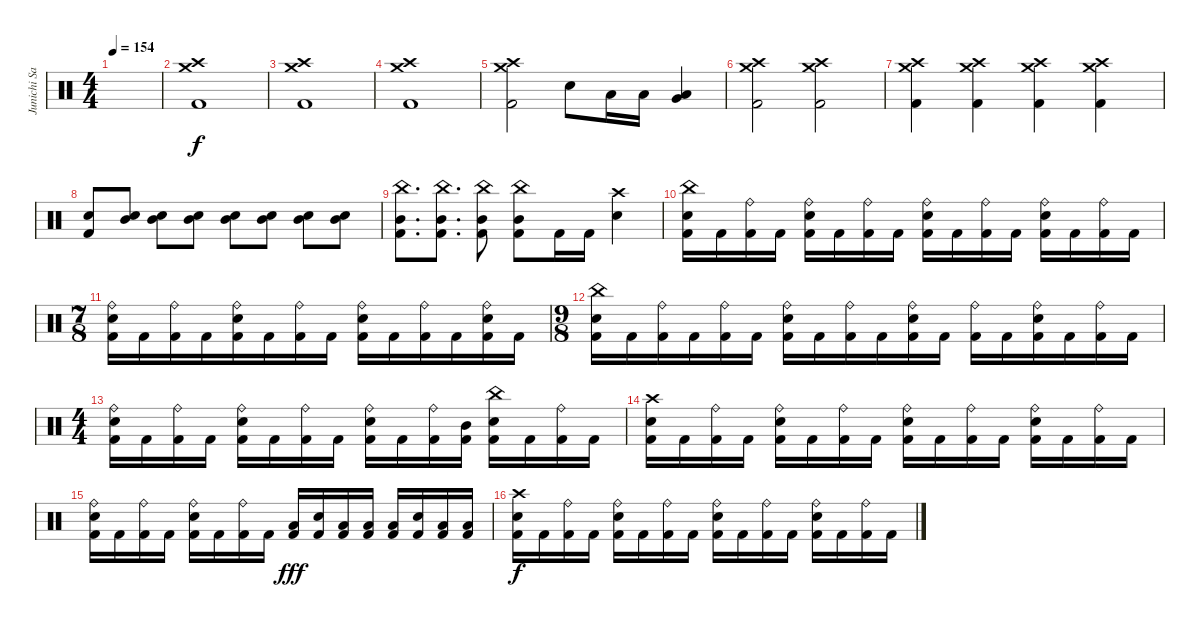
\track ("Junichi Sato" "Junichi Sa") {instrument percussion}
\staff {score}
\articulation defaults
\ts (4 4)
\tempo 154
\clef neutral
\ks c
|
("Kick (hit) 2" "Crash high (hit)" "Crash medium (hit)").1 |
("Kick (hit) 2" "Crash high (hit)" "Crash medium (hit)").1 |
("Kick (hit) 2" "Crash high (hit)" "Crash medium (hit)").1 |
("Kick (hit) 2" "Crash high (hit)" "Crash medium (hit)").2 "Electric Snare (hit)".8 "Low Tom (hit)".16 "Low Tom (hit)".16 ("Very Low Tom (hit)" "Low Floor Tom (hit)").4 |
("Kick (hit) 2" "Crash high (hit)" "Crash medium (hit)").2 ("Kick (hit) 2" "Crash high (hit)" "Crash medium (hit)").2 |
("Kick (hit) 2" "Crash high (hit)" "Crash medium (hit)").4 ("Kick (hit) 2" "Crash high (hit)" "Crash medium (hit)").4 ("Kick (hit) 2" "Crash high (hit)" "Crash medium (hit)").4 ("Kick (hit) 2" "Crash high (hit)" "Crash medium (hit)").4 |
("Electric Snare (hit)" "Kick (hit) 2").8 ("Electric Snare (hit)" "Mid Tom (hit)").8 ("Electric Snare (hit)" "Mid Tom (hit)").8 ("Electric Snare (hit)" "Mid Tom (hit)").8 ("Electric Snare (hit)" "Mid Tom (hit)").8 ("Electric Snare (hit)" "Mid Tom (hit)").8 ("Electric Snare (hit)" "Mid Tom (hit)").8 ("Electric Snare (hit)" "Mid Tom (hit)").8 |
("China (hit)" "Mid Tom (hit)" "Kick (hit) 2").8{d} ("China (hit)" "Mid Tom (hit)" "Kick (hit) 2").8{d} ("China (hit)" "Mid Tom (hit)" "Kick (hit) 2").8 ("China (hit)" "Mid Tom (hit)" "Kick (hit) 2").8 "Kick (hit) 2".16 "Kick (hit) 2".16 ("Electric Snare (hit)" "Crash high (hit)").4 |
("Kick (hit) 2" "Electric Snare (hit)" "China (hit)").16 "Kick (hit) 2".16 ("Kick (hit) 2" "Ride (bell)").16 "Kick (hit) 2".16 ("Kick (hit) 2" "Electric Snare (hit)" "Ride (bell)").16 "Kick (hit) 2".16 ("Kick (hit) 2" "Ride (bell)").16 "Kick (hit) 2".16 ("Kick (hit) 2" "Electric Snare (hit)" "Ride (bell)").16 "Kick (hit) 2".16 ("Kick (hit) 2" "Ride (bell)").16 "Kick (hit) 2".16 ("Kick (hit) 2" "Electric Snare (hit)" "Ride (bell)").16 "Kick (hit) 2".16 ("Kick (hit) 2" "Ride (bell)").16 "Kick (hit) 2".16 |
\ts (7 8)
("Kick (hit) 2" "Ride (bell)" "Electric Snare (hit)").16 "Kick (hit) 2".16 ("Kick (hit) 2" "Ride (bell)").16 "Kick (hit) 2".16 ("Kick (hit) 2" "Ride (bell)" "Electric Snare (hit)").16 "Kick (hit) 2".16 ("Kick (hit) 2" "Ride (bell)").16 "Kick (hit) 2".16 ("Kick (hit) 2" "Ride (bell)" "Electric Snare (hit)").16 "Kick (hit) 2".16 ("Kick (hit) 2" "Ride (bell)").16 "Kick (hit) 2".16 ("Kick (hit) 2" "Ride (bell)" "Electric Snare (hit)").16 "Kick (hit) 2".16 |
\ts (9 8)
("Kick (hit) 2" "Electric Snare (hit)" "China (hit)").16 "Kick (hit) 2".16 ("Kick (hit) 2" "Ride (bell)").16 "Kick (hit) 2".16 ("Kick (hit) 2" "Ride (bell)").16 "Kick (hit) 2".16 ("Kick (hit) 2" "Electric Snare (hit)" "Ride (bell)").16 "Kick (hit) 2".16 ("Kick (hit) 2" "Ride (bell)").16 "Kick (hit) 2".16 ("Kick (hit) 2" "Electric Snare (hit)" "Ride (bell)").16 "Kick (hit) 2".16 ("Kick (hit) 2" "Ride (bell)").16 "Kick (hit) 2".16 ("Kick (hit) 2" "Electric Snare (hit)" "Ride (bell)").16 "Kick (hit) 2".16 ("Kick (hit) 2" "Ride (bell)").16 "Kick (hit) 2".16 |
\ts (4 4)
("Kick (hit) 2" "Electric Snare (hit)" "Ride (bell)").16 "Kick (hit) 2".16 ("Kick (hit) 2" "Ride (bell)").16 "Kick (hit) 2".16 ("Kick (hit) 2" "Electric Snare (hit)" "Ride (bell)").16 "Kick (hit) 2".16 ("Kick (hit) 2" "Ride (bell)").16 "Kick (hit) 2".16 ("Kick (hit) 2" "Electric Snare (hit)" "Ride (bell)").16 "Kick (hit) 2".16 ("Kick (hit) 2" "Ride (bell)").16 ("Kick (hit) 2" "Mid Tom (hit)").16 ("Kick (hit) 2" "Electric Snare (hit)" "China (hit)").16 "Kick (hit) 2".16 ("Kick (hit) 2" "Ride (bell)").16 "Kick (hit) 2".16 |
("Kick (hit) 2" "Electric Snare (hit)" "Crash high (hit)").16 "Kick (hit) 2".16 ("Kick (hit) 2" "Ride (bell)").16 "Kick (hit) 2".16 ("Kick (hit) 2" "Electric Snare (hit)" "Ride (bell)").16 "Kick (hit) 2".16 ("Kick (hit) 2" "Ride (bell)").16 "Kick (hit) 2".16 ("Kick (hit) 2" "Electric Snare (hit)" "Ride (bell)").16 "Kick (hit) 2".16 ("Kick (hit) 2" "Ride (bell)").16 "Kick (hit) 2".16 ("Kick (hit) 2" "Electric Snare (hit)" "Ride (bell)").16 "Kick (hit) 2".16 ("Kick (hit) 2" "Ride (bell)").16 "Kick (hit) 2".16 |
("Kick (hit) 2" "Electric Snare (hit)" "Ride (bell)").16 "Kick (hit) 2".16 ("Kick (hit) 2" "Ride (bell)").16 "Kick (hit) 2".16 ("Kick (hit) 2" "Electric Snare (hit)" "Ride (bell)").16 "Kick (hit) 2".16 ("Kick (hit) 2" "Ride (bell)").16 "Kick (hit) 2".16 ("Kick (hit) 2" "Low Tom (hit)").16{dy fff} ("Kick (hit) 2" "Electric Snare (hit)").16 ("Kick (hit) 2" "Low Tom (hit)").16 ("Kick (hit) 2" "Low Tom (hit)").16 ("Kick (hit) 2" "Low Tom (hit)").16 ("Kick (hit) 2" "Electric Snare (hit)").16 ("Kick (hit) 2" "Low Tom (hit)").16 ("Kick (hit) 2" "Low Tom (hit)").16 |
("Kick (hit) 2" "Electric Snare (hit)" "Crash high (hit)").16{dy f} "Kick (hit) 2".16 ("Kick (hit) 2" "Ride (bell)").16 "Kick (hit) 2".16 ("Kick (hit) 2" "Electric Snare (hit)" "Ride (bell)").16 "Kick (hit) 2".16 ("Kick (hit) 2" "Ride (bell)").16 "Kick (hit) 2".16 ("Kick (hit) 2" "Electric Snare (hit)" "Ride (bell)").16 "Kick (hit) 2".16 ("Kick (hit) 2" "Ride (bell)").16 "Kick (hit) 2".16 ("Kick (hit) 2" "Electric Snare (hit)" "Ride (bell)").16 "Kick (hit) 2".16 ("Kick (hit) 2" "Ride (bell)").16 "Kick (hit) 2".16
